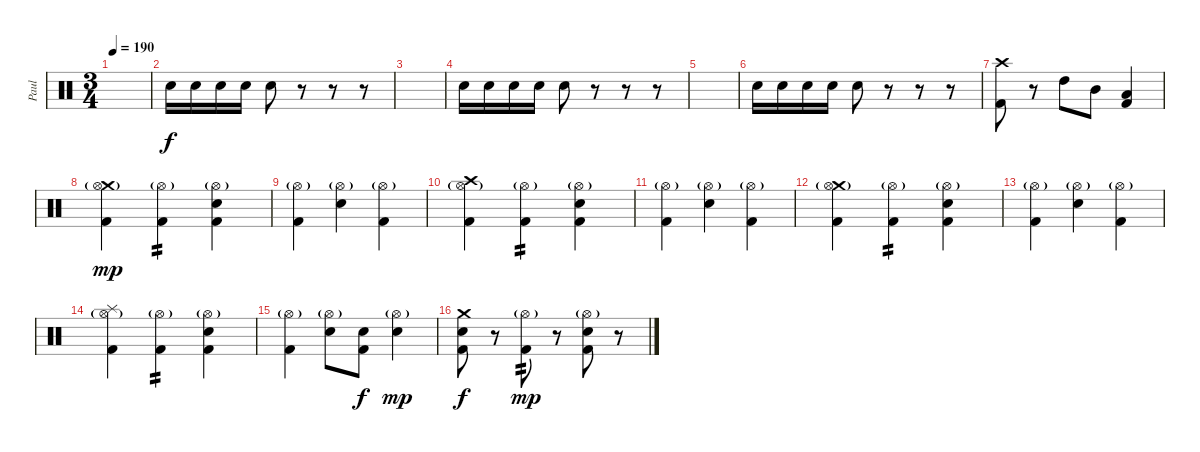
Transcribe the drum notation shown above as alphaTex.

\track ("Paul" "Paul") {instrument percussion}
\staff {score}
\articulation defaults
\ts (3 4)
\tempo 190
\clef neutral
\ks c
|
"Electric Snare (hit)".16 "Electric Snare (hit)".16 "Electric Snare (hit)".16 "Electric Snare (hit)".16 "Electric Snare (hit)".8 r.8 r.8 r.8 |
|
"Electric Snare (hit)".16 "Electric Snare (hit)".16 "Electric Snare (hit)".16 "Electric Snare (hit)".16 "Electric Snare (hit)".8 r.8 r.8 r.8 |
|
"Electric Snare (hit)".16 "Electric Snare (hit)".16 "Electric Snare (hit)".16 "Electric Snare (hit)".16 "Electric Snare (hit)".8 r.8 r.8 r.8 |
("Crash high (hit)" "Kick (hit) 2").8 r.8 "High Tom (hit)".8 "Mid Tom (hit)".8 ("Low Tom (hit)" "Kick (hit) 2").4 |
("Crash medium (hit)" "Hi-Hat (open)"{g} "Kick (hit) 2").4{dy mp} ("Hi-Hat (open)"{g} "Kick (hit) 2").4{tp 2} ("Electric Snare (hit)" "Hi-Hat (open)"{g} "Kick (hit) 2").4 |
("Hi-Hat (open)"{g} "Kick (hit) 2").4 ("Electric Snare (hit)" "Hi-Hat (open)"{g}).4 ("Hi-Hat (open)"{g} "Kick (hit) 2").4 |
("Crash high (hit)" "Hi-Hat (open)"{g} "Kick (hit) 2").4 ("Hi-Hat (open)"{g} "Kick (hit) 2").4{tp 2} ("Electric Snare (hit)" "Hi-Hat (open)"{g} "Kick (hit) 2").4 |
("Hi-Hat (open)"{g} "Kick (hit) 2").4 ("Electric Snare (hit)" "Hi-Hat (open)"{g}).4 ("Hi-Hat (open)"{g} "Kick (hit) 2").4 |
("Crash medium (hit)" "Hi-Hat (open)"{g} "Kick (hit) 2").4 ("Hi-Hat (open)"{g} "Kick (hit) 2").4{tp 2} ("Electric Snare (hit)" "Hi-Hat (open)"{g} "Kick (hit) 2").4 |
("Hi-Hat (open)"{g} "Kick (hit) 2").4 ("Electric Snare (hit)" "Hi-Hat (open)"{g}).4 ("Hi-Hat (open)"{g} "Kick (hit) 2").4 |
("Splash (hit)" "Hi-Hat (open)"{g} "Kick (hit) 2").4 ("Hi-Hat (open)"{g} "Kick (hit) 2").4{tp 2} ("Electric Snare (hit)" "Hi-Hat (open)"{g} "Kick (hit) 2").4 |
("Hi-Hat (open)"{g} "Kick (hit) 2").4 ("Electric Snare (hit)" "Hi-Hat (open)"{g}).8 ("Electric Snare (hit)" "Kick (hit) 2").8{dy f} ("Electric Snare (hit)" "Hi-Hat (open)"{g}).4{dy mp} |
("Electric Snare (hit)" "Crash medium (hit)" "Kick (hit) 2").8{dy f} r.8 ("Hi-Hat (open)"{g} "Kick (hit) 2").8{tp 2 dy mp} r.8 ("Electric Snare (hit)" "Hi-Hat (open)"{g} "Kick (hit) 2").8 r.8
